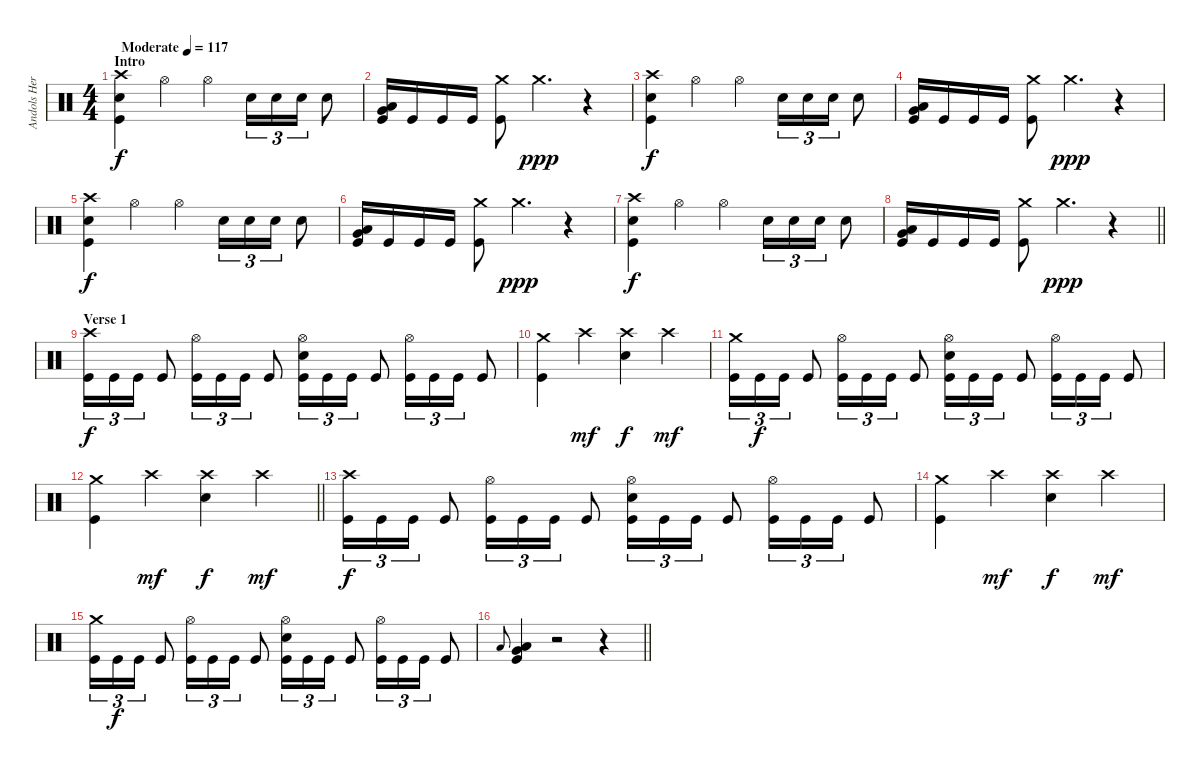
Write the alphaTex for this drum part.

\track ("Andols Herrick" "Andols Her") {instrument percussion}
\staff {score}
\articulation defaults
\ts (4 4)
\section ("" "Intro")
\tempo (117 "Moderate")
\clef neutral
\ks c
("Crash high (hit)" "Electric Snare (hit)" "Kick (hit)").4{dy f} "Hi-Hat (open)".4 "Hi-Hat (open)".4 "Electric Snare (hit)".16{tu (3 2)} "Electric Snare (hit)".16{tu (3 2)} "Electric Snare (hit)".16{tu (3 2)} "Electric Snare (hit)".8 |
("Very Low Tom (hit)" "Low Floor Tom (hit)" "Kick (hit)").16 "Kick (hit)".16 "Kick (hit)".16 "Kick (hit)".16 ("Crash medium (hit)" "Kick (hit)").8 "Crash medium (hit)".4{d dy ppp} r.4 |
("Crash high (hit)" "Electric Snare (hit)" "Kick (hit)").4{dy f} "Hi-Hat (open)".4 "Hi-Hat (open)".4 "Electric Snare (hit)".16{tu (3 2)} "Electric Snare (hit)".16{tu (3 2)} "Electric Snare (hit)".16{tu (3 2)} "Electric Snare (hit)".8 |
("Very Low Tom (hit)" "Low Floor Tom (hit)" "Kick (hit)").16 "Kick (hit)".16 "Kick (hit)".16 "Kick (hit)".16 ("Crash medium (hit)" "Kick (hit)").8 "Crash medium (hit)".4{d dy ppp} r.4 |
("Crash high (hit)" "Electric Snare (hit)" "Kick (hit)").4{dy f} "Hi-Hat (open)".4 "Hi-Hat (open)".4 "Electric Snare (hit)".16{tu (3 2)} "Electric Snare (hit)".16{tu (3 2)} "Electric Snare (hit)".16{tu (3 2)} "Electric Snare (hit)".8 |
("Very Low Tom (hit)" "Low Floor Tom (hit)" "Kick (hit)").16 "Kick (hit)".16 "Kick (hit)".16 "Kick (hit)".16 ("Crash medium (hit)" "Kick (hit)").8 "Crash medium (hit)".4{d dy ppp} r.4 |
("Crash high (hit)" "Electric Snare (hit)" "Kick (hit)").4{dy f} "Hi-Hat (open)".4 "Hi-Hat (open)".4 "Electric Snare (hit)".16{tu (3 2)} "Electric Snare (hit)".16{tu (3 2)} "Electric Snare (hit)".16{tu (3 2)} "Electric Snare (hit)".8 |
\barLineRight lightlight
("Very Low Tom (hit)" "Low Floor Tom (hit)" "Kick (hit)").16 "Kick (hit)".16 "Kick (hit)".16 "Kick (hit)".16 ("Crash medium (hit)" "Kick (hit)").8 "Crash medium (hit)".4{d dy ppp} r.4 |
\section ("" "Verse 1")
("Crash high (hit)" "Kick (hit)").16{tu (3 2) dy f} "Kick (hit)".16{tu (3 2)} "Kick (hit)".16{tu (3 2)} "Kick (hit)".8 ("Hi-Hat (open)" "Kick (hit)").16{tu (3 2)} "Kick (hit)".16{tu (3 2)} "Kick (hit)".16{tu (3 2)} "Kick (hit)".8 ("Hi-Hat (open)" "Electric Snare (hit)" "Kick (hit)").16{tu (3 2)} "Kick (hit)".16{tu (3 2)} "Kick (hit)".16{tu (3 2)} "Kick (hit)".8 ("Hi-Hat (open)" "Kick (hit)").16{tu (3 2)} "Kick (hit)".16{tu (3 2)} "Kick (hit)".16{tu (3 2)} "Kick (hit)".8 |
("Crash medium (hit)" "Kick (hit)").4 "Crash high (hit)".4{dy mf} ("Crash high (hit)" "Electric Snare (hit)").4{dy f} "Crash high (hit)".4{dy mf} |
("Crash medium (hit)" "Kick (hit)").16{tu (3 2)} "Kick (hit)".16{tu (3 2) dy f} "Kick (hit)".16{tu (3 2)} "Kick (hit)".8 ("Hi-Hat (open)" "Kick (hit)").16{tu (3 2)} "Kick (hit)".16{tu (3 2)} "Kick (hit)".16{tu (3 2)} "Kick (hit)".8 ("Hi-Hat (open)" "Electric Snare (hit)" "Kick (hit)").16{tu (3 2)} "Kick (hit)".16{tu (3 2)} "Kick (hit)".16{tu (3 2)} "Kick (hit)".8 ("Hi-Hat (open)" "Kick (hit)").16{tu (3 2)} "Kick (hit)".16{tu (3 2)} "Kick (hit)".16{tu (3 2)} "Kick (hit)".8 |
\barLineRight lightlight
("Crash medium (hit)" "Kick (hit)").4 "Crash high (hit)".4{dy mf} ("Crash high (hit)" "Electric Snare (hit)").4{dy f} "Crash high (hit)".4{dy mf} |
("Crash high (hit)" "Kick (hit)").16{tu (3 2) dy f} "Kick (hit)".16{tu (3 2)} "Kick (hit)".16{tu (3 2)} "Kick (hit)".8 ("Hi-Hat (open)" "Kick (hit)").16{tu (3 2)} "Kick (hit)".16{tu (3 2)} "Kick (hit)".16{tu (3 2)} "Kick (hit)".8 ("Hi-Hat (open)" "Electric Snare (hit)" "Kick (hit)").16{tu (3 2)} "Kick (hit)".16{tu (3 2)} "Kick (hit)".16{tu (3 2)} "Kick (hit)".8 ("Hi-Hat (open)" "Kick (hit)").16{tu (3 2)} "Kick (hit)".16{tu (3 2)} "Kick (hit)".16{tu (3 2)} "Kick (hit)".8 |
("Crash medium (hit)" "Kick (hit)").4 "Crash high (hit)".4{dy mf} ("Crash high (hit)" "Electric Snare (hit)").4{dy f} "Crash high (hit)".4{dy mf} |
("Crash medium (hit)" "Kick (hit)").16{tu (3 2)} "Kick (hit)".16{tu (3 2) dy f} "Kick (hit)".16{tu (3 2)} "Kick (hit)".8 ("Hi-Hat (open)" "Kick (hit)").16{tu (3 2)} "Kick (hit)".16{tu (3 2)} "Kick (hit)".16{tu (3 2)} "Kick (hit)".8 ("Hi-Hat (open)" "Electric Snare (hit)" "Kick (hit)").16{tu (3 2)} "Kick (hit)".16{tu (3 2)} "Kick (hit)".16{tu (3 2)} "Kick (hit)".8 ("Hi-Hat (open)" "Kick (hit)").16{tu (3 2)} "Kick (hit)".16{tu (3 2)} "Kick (hit)".16{tu (3 2)} "Kick (hit)".8 |
\barLineRight lightlight "Low Floor Tom (hit)".8{gr onbeat}
("Very Low Tom (hit)" "Low Floor Tom (hit)" "Kick (hit)").4 r.2 r.4
